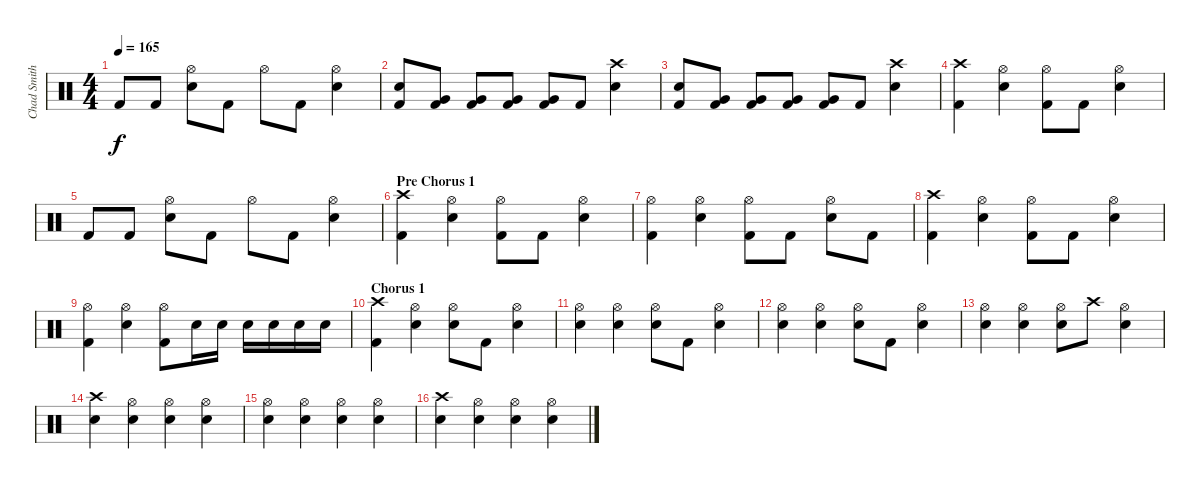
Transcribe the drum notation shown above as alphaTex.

\track ("Chad Smith - Drums" "Chad Smith") {instrument percussion}
\staff {score}
\articulation defaults
\ts (4 4)
\tempo 165
\clef neutral
\ks c "Kick (hit) 2".8{dy f} "Kick (hit) 2".8
("Hi-Hat (open)" "Snare (hit) 2").8 "Kick (hit) 2".8 "Hi-Hat (open)".8 "Kick (hit) 2".8 ("Snare (hit) 2" "Hi-Hat (open)").4 |
("Kick (hit) 2" "Snare (hit) 2").8 ("Very Low Tom (hit)" "Kick (hit) 2").8 ("Kick (hit) 2" "Very Low Tom (hit)").8 ("Very Low Tom (hit)" "Kick (hit) 2").8 ("Very Low Tom (hit)" "Kick (hit) 2").8 "Kick (hit) 2".8 ("Crash high (hit)" "Snare (hit) 2").4 |
("Snare (hit) 2" "Kick (hit) 2").8 ("Very Low Tom (hit)" "Kick (hit) 2").8 ("Very Low Tom (hit)" "Kick (hit) 2").8 ("Very Low Tom (hit)" "Kick (hit) 2").8 ("Very Low Tom (hit)" "Kick (hit) 2").8 "Kick (hit) 2".8 ("Crash high (hit)" "Snare (hit) 2").4 |
("Crash high (hit)" "Kick (hit) 2").4 ("Hi-Hat (open)" "Snare (hit) 2").4 ("Hi-Hat (open)" "Kick (hit) 2").8 "Kick (hit) 2".8 ("Hi-Hat (open)" "Snare (hit) 2").4 |
"Kick (hit) 2".8 "Kick (hit) 2".8 ("Hi-Hat (open)" "Snare (hit) 2").8 "Kick (hit) 2".8 "Hi-Hat (open)".8 "Kick (hit) 2".8 ("Snare (hit) 2" "Hi-Hat (open)").4 |
\section ("" "Pre Chorus 1")
("Crash high (hit)" "Kick (hit) 2").4 ("Hi-Hat (open)" "Snare (hit) 2").4 ("Hi-Hat (open)" "Kick (hit) 2").8 "Kick (hit) 2".8 ("Hi-Hat (open)" "Snare (hit) 2").4 |
("Hi-Hat (open)" "Kick (hit) 2").4 ("Hi-Hat (open)" "Snare (hit) 2").4 ("Hi-Hat (open)" "Kick (hit) 2").8 "Kick (hit) 2".8 ("Hi-Hat (open)" "Snare (hit) 2").8 "Kick (hit) 2".8 |
("Crash high (hit)" "Kick (hit) 2").4 ("Hi-Hat (open)" "Snare (hit) 2").4 ("Hi-Hat (open)" "Kick (hit) 2").8 "Kick (hit) 2".8 ("Hi-Hat (open)" "Snare (hit) 2").4 |
("Hi-Hat (open)" "Kick (hit) 2").4 ("Hi-Hat (open)" "Snare (hit) 2").4 ("Hi-Hat (open)" "Kick (hit) 2").8 "Snare (hit) 2".16 "Snare (hit) 2".16 "Snare (hit) 2".16 "Snare (hit) 2".16 "Snare (hit) 2".16 "Snare (hit) 2".16 |
\section ("" "Chorus 1")
("Crash high (hit)" "Kick (hit) 2").4 ("Hi-Hat (open)" "Snare (hit) 2").4 ("Hi-Hat (open)" "Snare (hit) 2").8 "Kick (hit) 2".8 ("Hi-Hat (open)" "Snare (hit) 2").4 |
("Hi-Hat (open)" "Snare (hit) 2").4 ("Hi-Hat (open)" "Snare (hit) 2").4 ("Hi-Hat (open)" "Snare (hit) 2").8 "Kick (hit) 2".8 ("Hi-Hat (open)" "Snare (hit) 2").4 |
("Hi-Hat (open)" "Snare (hit) 2").4 ("Hi-Hat (open)" "Snare (hit) 2").4 ("Hi-Hat (open)" "Snare (hit) 2").8 "Kick (hit) 2".8 ("Hi-Hat (open)" "Snare (hit) 2").4 |
("Hi-Hat (open)" "Snare (hit) 2").4 ("Hi-Hat (open)" "Snare (hit) 2").4 ("Hi-Hat (open)" "Snare (hit) 2").8 "Crash high (hit)".8 ("Snare (hit) 2" "Hi-Hat (open)").4 |
("Crash high (hit)" "Snare (hit) 2").4 ("Hi-Hat (open)" "Snare (hit) 2").4 ("Hi-Hat (open)" "Snare (hit) 2").4 ("Hi-Hat (open)" "Snare (hit) 2").4 |
("Hi-Hat (open)" "Snare (hit) 2").4 ("Hi-Hat (open)" "Snare (hit) 2").4 ("Hi-Hat (open)" "Snare (hit) 2").4 ("Hi-Hat (open)" "Snare (hit) 2").4 |
("Crash high (hit)" "Snare (hit) 2").4 ("Hi-Hat (open)" "Snare (hit) 2").4 ("Hi-Hat (open)" "Snare (hit) 2").4 ("Hi-Hat (open)" "Snare (hit) 2").4
